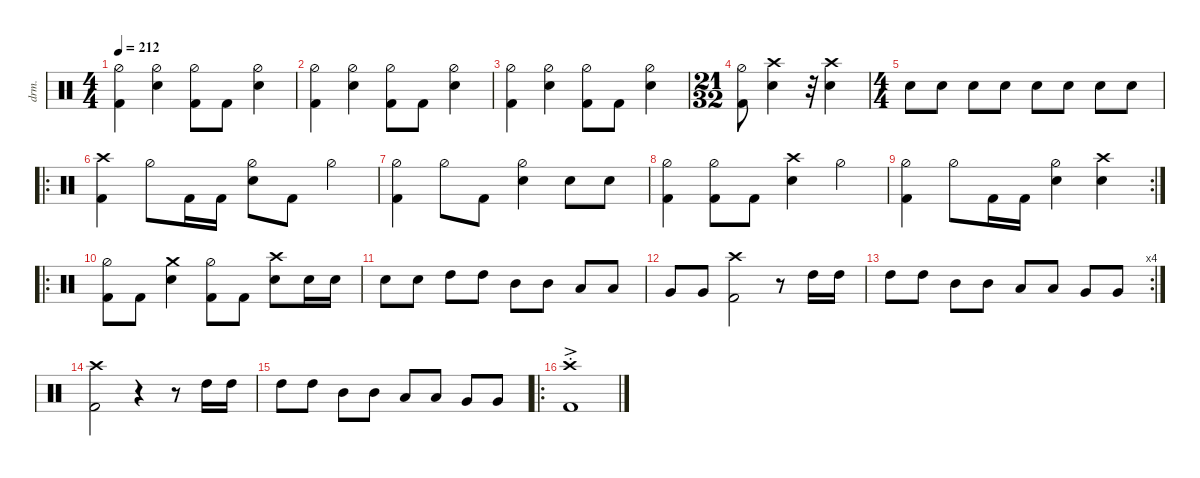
\defaultSystemsLayout 4
\hideDynamics
\bracketExtendMode nobrackets
\track ("Drums" "drm.") {instrument percussion}
\staff {score}
\articulation defaults
\ts (4 4)
\beaming (8 2 2 2 2)
\tempo 212
\clef neutral
\ks c
("Kick (hit) 2" "Hi-Hat (half)").4{dy f} ("Hi-Hat (half)" "Snare (hit) 2").4 ("Hi-Hat (half)" "Kick (hit) 2").8 "Kick (hit) 2".8 ("Hi-Hat (half)" "Snare (hit) 2").4 |
("Kick (hit) 2" "Hi-Hat (half)").4 ("Hi-Hat (half)" "Snare (hit) 2").4 ("Hi-Hat (half)" "Kick (hit) 2").8 "Kick (hit) 2".8 ("Hi-Hat (half)" "Snare (hit) 2").4 |
("Kick (hit) 2" "Hi-Hat (half)").4 ("Hi-Hat (half)" "Snare (hit) 2").4 ("Hi-Hat (half)" "Kick (hit) 2").8 "Kick (hit) 2".8 ("Hi-Hat (half)" "Snare (hit) 2").4 |
\ts (21 32)
\beaming (8 2 2 2 2)
("Kick (hit) 2" "Hi-Hat (half)").8 ("Snare (hit) 2" "Crash high (hit)").4 r.32 ("Snare (hit) 2" "Crash high (hit)").4 |
\ts (4 4)
\beaming (8 2 2 2 2)
"Snare (hit) 2".8 "Snare (hit) 2".8 "Snare (hit) 2".8 "Snare (hit) 2".8 "Snare (hit) 2".8 "Snare (hit) 2".8 "Snare (hit) 2".8 "Snare (hit) 2".8 |
\ro
("Crash high (hit)" "Kick (hit) 2").4 "Hi-Hat (half)".8 "Kick (hit) 2".16 "Kick (hit) 2".16 ("Snare (hit) 2" "Hi-Hat (half)").8 "Kick (hit) 2".8 "Hi-Hat (half)".4 |
("Hi-Hat (half)" "Kick (hit) 2").4 "Hi-Hat (half)".8 "Kick (hit) 2".8 ("Hi-Hat (half)" "Snare (hit) 2").4 "Snare (hit) 2".8 "Snare (hit) 2".8 |
("Hi-Hat (half)" "Kick (hit) 2").4 ("Hi-Hat (half)" "Kick (hit) 2").8 "Kick (hit) 2".8 ("Snare (hit) 2" "Crash high (hit)").4 "Hi-Hat (half)".4 |
\rc 2
("Hi-Hat (half)" "Kick (hit) 2").4 "Hi-Hat (half)".8 "Kick (hit) 2".16 "Kick (hit) 2".16 ("Snare (hit) 2" "Hi-Hat (half)").4 ("Snare (hit) 2" "Crash high (hit)").4 |
\ro
("Hi-Hat (half)" "Kick (hit) 2").8 "Kick (hit) 2".8 ("Snare (hit) 2" "Crash medium (hit)").4 ("Hi-Hat (half)" "Kick (hit) 2").8 "Kick (hit) 2".8 ("Snare (hit) 2" "Crash high (hit)").8 "Snare (hit) 2".16{dy mp} "Snare (hit) 2".16{dy mf} |
"Snare (hit) 2".8{dy f} "Snare (hit) 2".8 "High Tom (hit)".8{dy ff} "High Tom (hit)".8 "Mid Tom (hit)".8 "Mid Tom (hit)".8 "Low Tom (hit)".8 "Low Tom (hit)".8 |
"Very Low Tom (hit)".8 "Very Low Tom (hit)".8 ("Kick (hit) 2" "Crash high (hit)").2{dy f} r.8 "High Tom (hit)".16{dy ff} "High Tom (hit)".16 |
\rc 4 "High Tom (hit)".8 "High Tom (hit)".8 "Mid Tom (hit)".8 "Mid Tom (hit)".8 "Low Tom (hit)".8 "Low Tom (hit)".8 "Very Low Tom (hit)".8 "Very Low Tom (hit)".8
|
("Kick (hit) 2" "Crash high (hit)").2{dy f} r.4 r.8 "High Tom (hit)".16{dy ff} "High Tom (hit)".16 |
"High Tom (hit)".8 "High Tom (hit)".8 "Mid Tom (hit)".8 "Mid Tom (hit)".8 "Low Tom (hit)".8 "Low Tom (hit)".8 "Very Low Tom (hit)".8 "Very Low Tom (hit)".8 |
\ro
("Kick (hit) 2" "Crash high (hit)"{ac st}).1{dy f}
